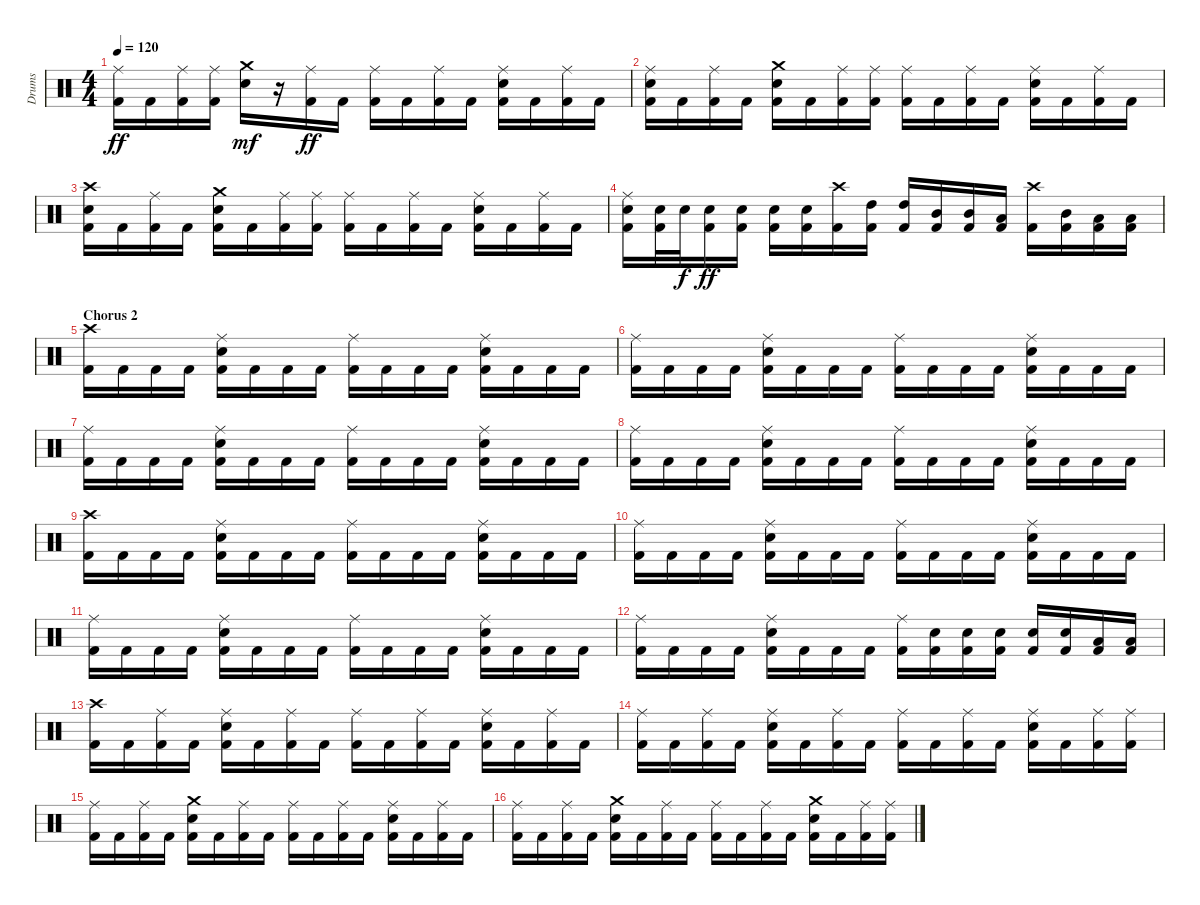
\track ("Drums" "Drums") {instrument percussion}
\staff {score}
\articulation defaults
\ts (4 4)
\tempo 120
\clef neutral
\ks c
("Ride (middle)" "Kick (hit) 2").16{dy ff} "Kick (hit) 2".16 ("Ride (middle)" "Kick (hit) 2").16 ("Ride (middle)" "Kick (hit) 2").16 ("Crash medium (hit)" "Electric Snare (hit)").16{dy mf} r.16 ("Ride (middle)" "Kick (hit) 2").16{dy ff} "Kick (hit) 2".16 ("Ride (middle)" "Kick (hit) 2").16 "Kick (hit) 2".16 ("Ride (middle)" "Kick (hit) 2").16 "Kick (hit) 2".16 ("Ride (middle)" "Electric Snare (hit)" "Kick (hit) 2").16 "Kick (hit) 2".16 ("Ride (middle)" "Kick (hit) 2").16 "Kick (hit) 2".16 |
("Ride (middle)" "Electric Snare (hit)" "Kick (hit) 2").16 "Kick (hit) 2".16 ("Ride (middle)" "Kick (hit) 2").16 "Kick (hit) 2".16 ("Crash medium (hit)" "Electric Snare (hit)" "Kick (hit) 2").16 "Kick (hit) 2".16 ("Ride (middle)" "Kick (hit) 2").16 ("Ride (middle)" "Kick (hit) 2").16 ("Ride (middle)" "Kick (hit) 2").16 "Kick (hit) 2".16 ("Ride (middle)" "Kick (hit) 2").16 "Kick (hit) 2".16 ("Ride (middle)" "Electric Snare (hit)" "Kick (hit) 2").16 "Kick (hit) 2".16 ("Ride (middle)" "Kick (hit) 2").16 "Kick (hit) 2".16 |
("Crash high (hit)" "Electric Snare (hit)" "Kick (hit) 2").16 "Kick (hit) 2".16 ("Ride (middle)" "Kick (hit) 2").16 "Kick (hit) 2".16 ("Crash medium (hit)" "Electric Snare (hit)" "Kick (hit) 2").16 "Kick (hit) 2".16 ("Ride (middle)" "Kick (hit) 2").16 ("Ride (middle)" "Kick (hit) 2").16 ("Ride (middle)" "Kick (hit) 2").16 "Kick (hit) 2".16 ("Ride (middle)" "Kick (hit) 2").16 "Kick (hit) 2".16 ("Ride (middle)" "Electric Snare (hit)" "Kick (hit) 2").16 "Kick (hit) 2".16 ("Ride (middle)" "Kick (hit) 2").16 "Kick (hit) 2".16 |
("Ride (middle)" "Electric Snare (hit)" "Kick (hit) 2").16 ("Electric Snare (hit)" "Kick (hit) 2").32 "Electric Snare (hit)".32{dy f} ("Electric Snare (hit)" "Kick (hit) 2").16{dy ff} ("Electric Snare (hit)" "Kick (hit) 2").16 ("Electric Snare (hit)" "Kick (hit) 2").16 ("Electric Snare (hit)" "Kick (hit) 2").16 ("Crash high (hit)" "Kick (hit) 2").16 ("High Tom (hit)" "Kick (hit) 2").16 ("High Tom (hit)" "Kick (hit) 2").16 ("Mid Tom (hit)" "Kick (hit) 2").16 ("Mid Tom (hit)" "Kick (hit) 2").16 ("Low Tom (hit)" "Kick (hit) 2").16 ("Crash high (hit)" "Kick (hit) 2").16 ("Mid Tom (hit)" "Kick (hit) 2").16 ("Low Tom (hit)" "Kick (hit) 2").16 ("Low Tom (hit)" "Kick (hit) 2").16 |
\section ("" "Chorus 2")
("Crash high (hit)" "Kick (hit) 2").16 "Kick (hit) 2".16 "Kick (hit) 2".16 "Kick (hit) 2".16 ("Ride (middle)" "Electric Snare (hit)" "Kick (hit) 2").16 "Kick (hit) 2".16 "Kick (hit) 2".16 "Kick (hit) 2".16 ("Ride (middle)" "Kick (hit) 2").16 "Kick (hit) 2".16 "Kick (hit) 2".16 "Kick (hit) 2".16 ("Ride (middle)" "Electric Snare (hit)" "Kick (hit) 2").16 "Kick (hit) 2".16 "Kick (hit) 2".16 "Kick (hit) 2".16 |
("Ride (middle)" "Kick (hit) 2").16 "Kick (hit) 2".16 "Kick (hit) 2".16 "Kick (hit) 2".16 ("Ride (middle)" "Electric Snare (hit)" "Kick (hit) 2").16 "Kick (hit) 2".16 "Kick (hit) 2".16 "Kick (hit) 2".16 ("Ride (middle)" "Kick (hit) 2").16 "Kick (hit) 2".16 "Kick (hit) 2".16 "Kick (hit) 2".16 ("Ride (middle)" "Electric Snare (hit)" "Kick (hit) 2").16 "Kick (hit) 2".16 "Kick (hit) 2".16 "Kick (hit) 2".16 |
("Ride (middle)" "Kick (hit) 2").16 "Kick (hit) 2".16 "Kick (hit) 2".16 "Kick (hit) 2".16 ("Ride (middle)" "Electric Snare (hit)" "Kick (hit) 2").16 "Kick (hit) 2".16 "Kick (hit) 2".16 "Kick (hit) 2".16 ("Ride (middle)" "Kick (hit) 2").16 "Kick (hit) 2".16 "Kick (hit) 2".16 "Kick (hit) 2".16 ("Ride (middle)" "Electric Snare (hit)" "Kick (hit) 2").16 "Kick (hit) 2".16 "Kick (hit) 2".16 "Kick (hit) 2".16 |
("Ride (middle)" "Kick (hit) 2").16 "Kick (hit) 2".16 "Kick (hit) 2".16 "Kick (hit) 2".16 ("Ride (middle)" "Electric Snare (hit)" "Kick (hit) 2").16 "Kick (hit) 2".16 "Kick (hit) 2".16 "Kick (hit) 2".16 ("Ride (middle)" "Kick (hit) 2").16 "Kick (hit) 2".16 "Kick (hit) 2".16 "Kick (hit) 2".16 ("Ride (middle)" "Electric Snare (hit)" "Kick (hit) 2").16 "Kick (hit) 2".16 "Kick (hit) 2".16 "Kick (hit) 2".16 |
("Crash high (hit)" "Kick (hit) 2").16 "Kick (hit) 2".16 "Kick (hit) 2".16 "Kick (hit) 2".16 ("Ride (middle)" "Electric Snare (hit)" "Kick (hit) 2").16 "Kick (hit) 2".16 "Kick (hit) 2".16 "Kick (hit) 2".16 ("Ride (middle)" "Kick (hit) 2").16 "Kick (hit) 2".16 "Kick (hit) 2".16 "Kick (hit) 2".16 ("Ride (middle)" "Electric Snare (hit)" "Kick (hit) 2").16 "Kick (hit) 2".16 "Kick (hit) 2".16 "Kick (hit) 2".16 |
("Ride (middle)" "Kick (hit) 2").16 "Kick (hit) 2".16 "Kick (hit) 2".16 "Kick (hit) 2".16 ("Ride (middle)" "Electric Snare (hit)" "Kick (hit) 2").16 "Kick (hit) 2".16 "Kick (hit) 2".16 "Kick (hit) 2".16 ("Ride (middle)" "Kick (hit) 2").16 "Kick (hit) 2".16 "Kick (hit) 2".16 "Kick (hit) 2".16 ("Ride (middle)" "Electric Snare (hit)" "Kick (hit) 2").16 "Kick (hit) 2".16 "Kick (hit) 2".16 "Kick (hit) 2".16 |
("Ride (middle)" "Kick (hit) 2").16 "Kick (hit) 2".16 "Kick (hit) 2".16 "Kick (hit) 2".16 ("Ride (middle)" "Electric Snare (hit)" "Kick (hit) 2").16 "Kick (hit) 2".16 "Kick (hit) 2".16 "Kick (hit) 2".16 ("Ride (middle)" "Kick (hit) 2").16 "Kick (hit) 2".16 "Kick (hit) 2".16 "Kick (hit) 2".16 ("Ride (middle)" "Electric Snare (hit)" "Kick (hit) 2").16 "Kick (hit) 2".16 "Kick (hit) 2".16 "Kick (hit) 2".16 |
("Ride (middle)" "Kick (hit) 2").16 "Kick (hit) 2".16 "Kick (hit) 2".16 "Kick (hit) 2".16 ("Ride (middle)" "Electric Snare (hit)" "Kick (hit) 2").16 "Kick (hit) 2".16 "Kick (hit) 2".16 "Kick (hit) 2".16 ("Ride (middle)" "Kick (hit) 2").16 ("Electric Snare (hit)" "Kick (hit) 2").16 ("Electric Snare (hit)" "Kick (hit) 2").16 ("Electric Snare (hit)" "Kick (hit) 2").16 ("Electric Snare (hit)" "Kick (hit) 2").16 ("Electric Snare (hit)" "Kick (hit) 2").16 ("Low Tom (hit)" "Kick (hit) 2").16 ("Low Tom (hit)" "Kick (hit) 2").16 |
("Crash high (hit)" "Kick (hit) 2").16 "Kick (hit) 2".16 ("Ride (middle)" "Kick (hit) 2").16 "Kick (hit) 2".16 ("Ride (middle)" "Electric Snare (hit)" "Kick (hit) 2").16 "Kick (hit) 2".16 ("Ride (middle)" "Kick (hit) 2").16 "Kick (hit) 2".16 ("Ride (middle)" "Kick (hit) 2").16 "Kick (hit) 2".16 ("Ride (middle)" "Kick (hit) 2").16 "Kick (hit) 2".16 ("Ride (middle)" "Electric Snare (hit)" "Kick (hit) 2").16 "Kick (hit) 2".16 ("Ride (middle)" "Kick (hit) 2").16 "Kick (hit) 2".16 |
("Ride (middle)" "Kick (hit) 2").16 "Kick (hit) 2".16 ("Ride (middle)" "Kick (hit) 2").16 "Kick (hit) 2".16 ("Ride (middle)" "Electric Snare (hit)" "Kick (hit) 2").16 "Kick (hit) 2".16 ("Ride (middle)" "Kick (hit) 2").16 "Kick (hit) 2".16 ("Ride (middle)" "Kick (hit) 2").16 "Kick (hit) 2".16 ("Ride (middle)" "Kick (hit) 2").16 "Kick (hit) 2".16 ("Ride (middle)" "Electric Snare (hit)" "Kick (hit) 2").16 "Kick (hit) 2".16 ("Ride (middle)" "Kick (hit) 2").16 ("Ride (middle)" "Kick (hit) 2").16 |
("Ride (middle)" "Kick (hit) 2").16 "Kick (hit) 2".16 ("Ride (middle)" "Kick (hit) 2").16 "Kick (hit) 2".16 ("Crash medium (hit)" "Electric Snare (hit)" "Kick (hit) 2").16 "Kick (hit) 2".16 ("Ride (middle)" "Kick (hit) 2").16 "Kick (hit) 2".16 ("Ride (middle)" "Kick (hit) 2").16 "Kick (hit) 2".16 ("Ride (middle)" "Kick (hit) 2").16 "Kick (hit) 2".16 ("Ride (middle)" "Electric Snare (hit)" "Kick (hit) 2").16 "Kick (hit) 2".16 ("Ride (middle)" "Kick (hit) 2").16 "Kick (hit) 2".16 |
("Ride (middle)" "Kick (hit) 2").16 "Kick (hit) 2".16 ("Ride (middle)" "Kick (hit) 2").16 "Kick (hit) 2".16 ("Crash medium (hit)" "Electric Snare (hit)" "Kick (hit) 2").16 "Kick (hit) 2".16 ("Ride (middle)" "Kick (hit) 2").16 "Kick (hit) 2".16 ("Ride (middle)" "Kick (hit) 2").16 "Kick (hit) 2".16 ("Ride (middle)" "Kick (hit) 2").16 "Kick (hit) 2".16 ("Crash medium (hit)" "Electric Snare (hit)" "Kick (hit) 2").16 "Kick (hit) 2".16 ("Ride (middle)" "Kick (hit) 2").16 ("Ride (middle)" "Kick (hit) 2").16
